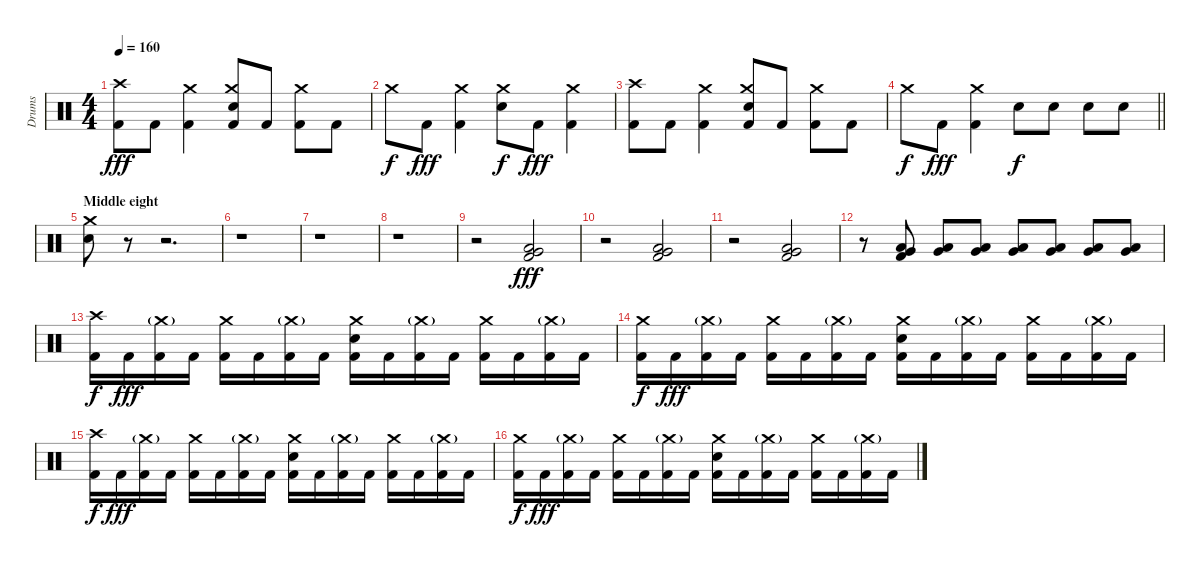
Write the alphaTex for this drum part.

\track ("Drums" "Drums") {instrument percussion}
\staff {score}
\articulation defaults
\ts (4 4)
\tempo 160
\clef neutral
\ks c
("Crash high (hit)" "Kick (hit) 2").8{dy fff} "Kick (hit) 2".8 ("Crash medium (hit)" "Kick (hit) 2").4 ("Crash medium (hit)" "Snare (hit) 2" "Kick (hit) 2").8 "Kick (hit) 2".8 ("Crash medium (hit)" "Kick (hit) 2").8 "Kick (hit) 2".8 |
"Crash medium (hit)".8{dy f} "Kick (hit) 2".8{dy fff} ("Crash medium (hit)" "Kick (hit) 2").4 ("Crash medium (hit)" "Snare (hit) 2").8{dy f} "Kick (hit) 2".8{dy fff} ("Crash medium (hit)" "Kick (hit) 2").4 |
("Crash high (hit)" "Kick (hit) 2").8 "Kick (hit) 2".8 ("Crash medium (hit)" "Kick (hit) 2").4 ("Crash medium (hit)" "Snare (hit) 2" "Kick (hit) 2").8 "Kick (hit) 2".8 ("Crash medium (hit)" "Kick (hit) 2").8 "Kick (hit) 2".8 |
\barLineRight lightlight "Crash medium (hit)".8{dy f} "Kick (hit) 2".8{dy fff}
("Crash medium (hit)" "Kick (hit) 2").4 "Snare (hit) 2".8{dy f} "Snare (hit) 2".8 "Snare (hit) 2".8 "Snare (hit) 2".8 |
\section ("" "Middle eight")
("Crash medium (hit)" "Snare (hit) 2").8 r.8 r.2{d} |
r.1 |
r.1 |
r.1 |
r.2 ("Very Low Tom (hit)" "Low Floor Tom (hit)" "Kick (hit) 2").2{dy fff} |
r.2 ("Very Low Tom (hit)" "Low Floor Tom (hit)" "Kick (hit) 2").2 |
r.2 ("Very Low Tom (hit)" "Low Floor Tom (hit)" "Kick (hit) 2").2 |
r.8 ("Very Low Tom (hit)" "Low Floor Tom (hit)" "Kick (hit) 2").8 ("Very Low Tom (hit)" "Low Floor Tom (hit)").8 ("Very Low Tom (hit)" "Low Floor Tom (hit)").8 ("Very Low Tom (hit)" "Low Floor Tom (hit)").8 ("Very Low Tom (hit)" "Low Floor Tom (hit)").8 ("Very Low Tom (hit)" "Low Floor Tom (hit)").8 ("Very Low Tom (hit)" "Low Floor Tom (hit)").8 |
("Crash high (hit)" "Kick (hit) 2").16{dy f} "Kick (hit) 2".16{dy fff} ("Crash medium (hit)"{g} "Kick (hit) 2").16 "Kick (hit) 2".16 ("Crash medium (hit)" "Kick (hit) 2").16 "Kick (hit) 2".16 ("Crash medium (hit)"{g} "Kick (hit) 2").16 "Kick (hit) 2".16 ("Crash medium (hit)" "Snare (hit) 2" "Kick (hit) 2").16 "Kick (hit) 2".16 ("Crash medium (hit)"{g} "Kick (hit) 2").16 "Kick (hit) 2".16 ("Crash medium (hit)" "Kick (hit) 2").16 "Kick (hit) 2".16 ("Crash medium (hit)"{g} "Kick (hit) 2").16 "Kick (hit) 2".16 |
("Crash medium (hit)" "Kick (hit) 2").16{dy f} "Kick (hit) 2".16{dy fff} ("Crash medium (hit)"{g} "Kick (hit) 2").16 "Kick (hit) 2".16 ("Crash medium (hit)" "Kick (hit) 2").16 "Kick (hit) 2".16 ("Crash medium (hit)"{g} "Kick (hit) 2").16 "Kick (hit) 2".16 ("Crash medium (hit)" "Snare (hit) 2" "Kick (hit) 2").16 "Kick (hit) 2".16 ("Crash medium (hit)"{g} "Kick (hit) 2").16 "Kick (hit) 2".16 ("Crash medium (hit)" "Kick (hit) 2").16 "Kick (hit) 2".16 ("Crash medium (hit)"{g} "Kick (hit) 2").16 "Kick (hit) 2".16 |
("Crash high (hit)" "Kick (hit) 2").16{dy f} "Kick (hit) 2".16{dy fff} ("Crash medium (hit)"{g} "Kick (hit) 2").16 "Kick (hit) 2".16 ("Crash medium (hit)" "Kick (hit) 2").16 "Kick (hit) 2".16 ("Crash medium (hit)"{g} "Kick (hit) 2").16 "Kick (hit) 2".16 ("Crash medium (hit)" "Snare (hit) 2" "Kick (hit) 2").16 "Kick (hit) 2".16 ("Crash medium (hit)"{g} "Kick (hit) 2").16 "Kick (hit) 2".16 ("Crash medium (hit)" "Kick (hit) 2").16 "Kick (hit) 2".16 ("Crash medium (hit)"{g} "Kick (hit) 2").16 "Kick (hit) 2".16 |
("Crash medium (hit)" "Kick (hit) 2").16{dy f} "Kick (hit) 2".16{dy fff} ("Crash medium (hit)"{g} "Kick (hit) 2").16 "Kick (hit) 2".16 ("Crash medium (hit)" "Kick (hit) 2").16 "Kick (hit) 2".16 ("Crash medium (hit)"{g} "Kick (hit) 2").16 "Kick (hit) 2".16 ("Crash medium (hit)" "Snare (hit) 2" "Kick (hit) 2").16 "Kick (hit) 2".16 ("Crash medium (hit)"{g} "Kick (hit) 2").16 "Kick (hit) 2".16 ("Crash medium (hit)" "Kick (hit) 2").16 "Kick (hit) 2".16 ("Crash medium (hit)"{g} "Kick (hit) 2").16 "Kick (hit) 2".16
